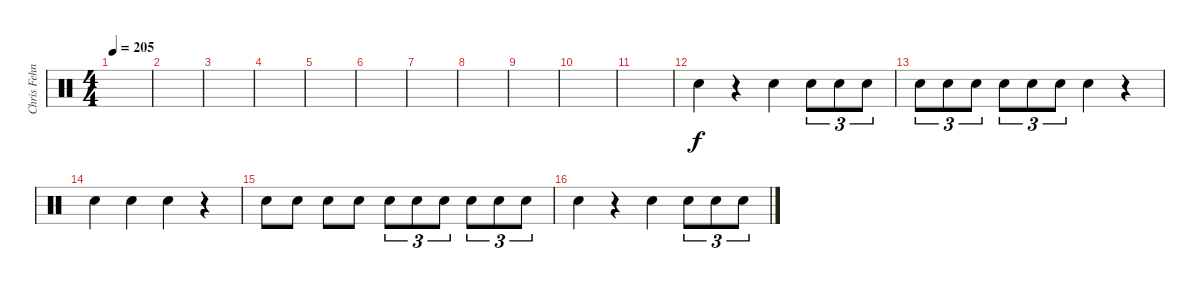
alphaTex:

\track ("Chris Fehn" "Chris Fehn") {instrument percussion}
\staff {score}
\articulation defaults
\ts (4 4)
\tempo 205
\clef neutral
\ks c
|
|
|
|
|
|
|
|
|
|
|
"Electric Snare (hit)".4 r.4 "Electric Snare (hit)".4 "Electric Snare (hit)".8{tu (3 2)} "Electric Snare (hit)".8{tu (3 2)} "Electric Snare (hit)".8{tu (3 2)} |
"Electric Snare (hit)".8{tu (3 2)} "Electric Snare (hit)".8{tu (3 2)} "Electric Snare (hit)".8{tu (3 2)} "Electric Snare (hit)".8{tu (3 2)} "Electric Snare (hit)".8{tu (3 2)} "Electric Snare (hit)".8{tu (3 2)} "Electric Snare (hit)".4 r.4 |
"Electric Snare (hit)".4 "Electric Snare (hit)".4 "Electric Snare (hit)".4 r.4 |
"Electric Snare (hit)".8 "Electric Snare (hit)".8 "Electric Snare (hit)".8 "Electric Snare (hit)".8 "Electric Snare (hit)".8{tu (3 2)} "Electric Snare (hit)".8{tu (3 2)} "Electric Snare (hit)".8{tu (3 2)} "Electric Snare (hit)".8{tu (3 2)} "Electric Snare (hit)".8{tu (3 2)} "Electric Snare (hit)".8{tu (3 2)} |
"Electric Snare (hit)".4 r.4 "Electric Snare (hit)".4 "Electric Snare (hit)".8{tu (3 2)} "Electric Snare (hit)".8{tu (3 2)} "Electric Snare (hit)".8{tu (3 2)}
